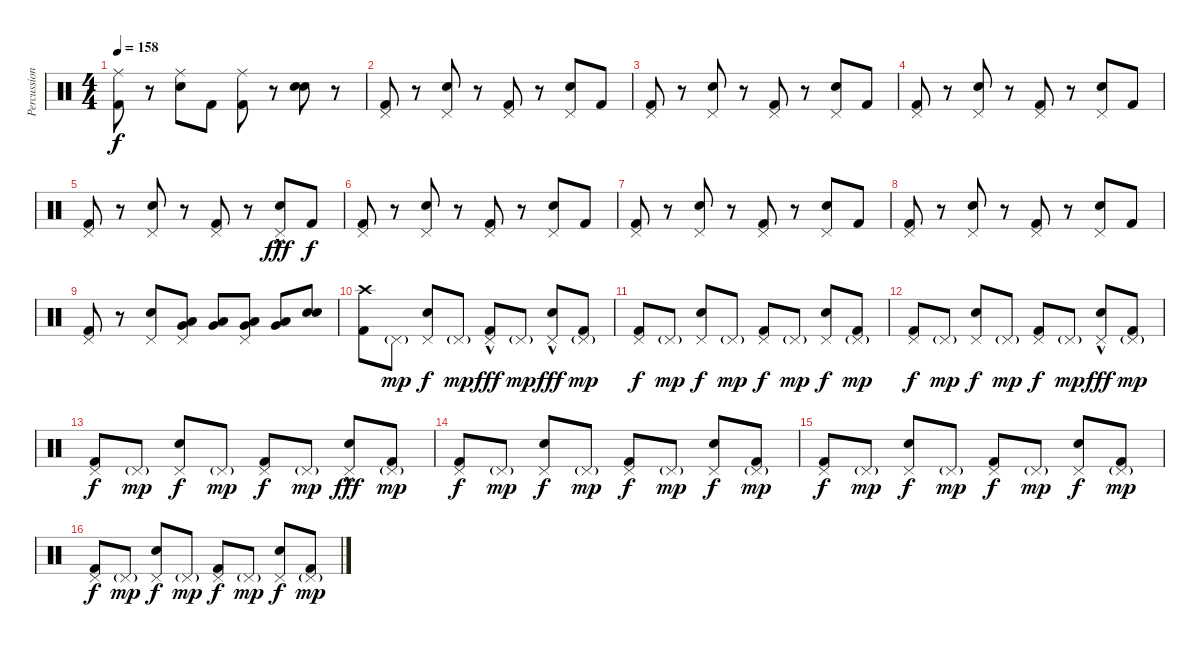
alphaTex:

\track ("Percussion" "Percussion") {instrument percussion bank 78}
\staff {score}
\articulation defaults
\ts (4 4)
\tempo 158
\clef neutral
\ks c
("Ride (middle)" "Kick (hit) 2").8{dy f} r.8 ("Ride (middle)" "Electric Snare (hit)").8 "Kick (hit) 2".8 ("Ride (middle)" "Kick (hit) 2").8 r.8 ("Electric Snare (hit)" "Electric Snare (hit)").8 r.8 |
("Pedal Hi-Hat (hit)" "Kick (hit) 2").8 r.8 ("Pedal Hi-Hat (hit)" "Electric Snare (hit)").8 r.8 ("Pedal Hi-Hat (hit)" "Kick (hit) 2").8 r.8 ("Pedal Hi-Hat (hit)" "Electric Snare (hit)").8 "Kick (hit) 2".8 |
("Pedal Hi-Hat (hit)" "Kick (hit) 2").8 r.8 ("Pedal Hi-Hat (hit)" "Electric Snare (hit)").8 r.8 ("Pedal Hi-Hat (hit)" "Kick (hit) 2").8 r.8 ("Pedal Hi-Hat (hit)" "Electric Snare (hit)").8 "Kick (hit) 2".8 |
("Pedal Hi-Hat (hit)" "Kick (hit) 2").8 r.8 ("Pedal Hi-Hat (hit)" "Electric Snare (hit)").8 r.8 ("Pedal Hi-Hat (hit)" "Kick (hit) 2").8 r.8 ("Pedal Hi-Hat (hit)" "Electric Snare (hit)").8 "Kick (hit) 2".8 |
("Pedal Hi-Hat (hit)" "Kick (hit) 2").8 r.8 ("Pedal Hi-Hat (hit)" "Electric Snare (hit)").8 r.8 ("Pedal Hi-Hat (hit)" "Kick (hit) 2").8 r.8 ("Pedal Hi-Hat (hit)"{hac} "Electric Snare (hit)").8{dy fff} "Kick (hit) 2".8{dy f} |
("Pedal Hi-Hat (hit)" "Kick (hit) 2").8 r.8 ("Pedal Hi-Hat (hit)" "Electric Snare (hit)").8 r.8 ("Pedal Hi-Hat (hit)" "Kick (hit) 2").8 r.8 ("Pedal Hi-Hat (hit)" "Electric Snare (hit)").8 "Kick (hit) 2".8 |
("Pedal Hi-Hat (hit)" "Kick (hit) 2").8 r.8 ("Pedal Hi-Hat (hit)" "Electric Snare (hit)").8 r.8 ("Pedal Hi-Hat (hit)" "Kick (hit) 2").8 r.8 ("Pedal Hi-Hat (hit)" "Electric Snare (hit)").8 "Kick (hit) 2".8 |
("Pedal Hi-Hat (hit)" "Kick (hit) 2").8 r.8 ("Pedal Hi-Hat (hit)" "Electric Snare (hit)").8 r.8 ("Pedal Hi-Hat (hit)" "Kick (hit) 2").8 r.8 ("Pedal Hi-Hat (hit)" "Electric Snare (hit)").8 "Kick (hit) 2".8 |
("Pedal Hi-Hat (hit)" "Kick (hit) 2").8 r.8 ("Pedal Hi-Hat (hit)" "Electric Snare (hit)").8 ("Pedal Hi-Hat (hit)" "Very Low Tom (hit)" "Low Floor Tom (hit)").8 ("Very Low Tom (hit)" "Low Floor Tom (hit)").8 ("Pedal Hi-Hat (hit)" "Very Low Tom (hit)" "Low Floor Tom (hit)").8 ("Very Low Tom (hit)" "Low Floor Tom (hit)").8 ("Electric Snare (hit)" "Electric Snare (hit)").8 |
("Crash high (hit)" "Kick (hit) 2").8 "Pedal Hi-Hat (hit)"{g}.8{dy mp} ("Pedal Hi-Hat (hit)" "Electric Snare (hit)").8{dy f} "Pedal Hi-Hat (hit)"{g}.8{dy mp} ("Pedal Hi-Hat (hit)"{hac} "Kick (hit) 2").8{dy fff} "Pedal Hi-Hat (hit)"{g}.8{dy mp} ("Pedal Hi-Hat (hit)"{hac} "Electric Snare (hit)").8{dy fff} ("Pedal Hi-Hat (hit)"{g} "Kick (hit) 2").8{dy mp} |
("Pedal Hi-Hat (hit)" "Kick (hit) 2").8{dy f} "Pedal Hi-Hat (hit)"{g}.8{dy mp} ("Pedal Hi-Hat (hit)" "Electric Snare (hit)").8{dy f} "Pedal Hi-Hat (hit)"{g}.8{dy mp} ("Pedal Hi-Hat (hit)" "Kick (hit) 2").8{dy f} "Pedal Hi-Hat (hit)"{g}.8{dy mp} ("Pedal Hi-Hat (hit)" "Electric Snare (hit)").8{dy f} ("Pedal Hi-Hat (hit)"{g} "Kick (hit) 2").8{dy mp} |
("Pedal Hi-Hat (hit)" "Kick (hit) 2").8{dy f} "Pedal Hi-Hat (hit)"{g}.8{dy mp} ("Pedal Hi-Hat (hit)" "Electric Snare (hit)").8{dy f} "Pedal Hi-Hat (hit)"{g}.8{dy mp} ("Pedal Hi-Hat (hit)" "Kick (hit) 2").8{dy f} "Pedal Hi-Hat (hit)"{g}.8{dy mp} ("Pedal Hi-Hat (hit)"{hac} "Electric Snare (hit)").8{dy fff} ("Pedal Hi-Hat (hit)"{g} "Kick (hit) 2").8{dy mp} |
("Pedal Hi-Hat (hit)" "Kick (hit) 2").8{dy f} "Pedal Hi-Hat (hit)"{g}.8{dy mp} ("Pedal Hi-Hat (hit)" "Electric Snare (hit)").8{dy f} "Pedal Hi-Hat (hit)"{g}.8{dy mp} ("Pedal Hi-Hat (hit)" "Kick (hit) 2").8{dy f} "Pedal Hi-Hat (hit)"{g}.8{dy mp} ("Pedal Hi-Hat (hit)"{hac} "Electric Snare (hit)").8{dy fff} ("Pedal Hi-Hat (hit)"{g} "Kick (hit) 2").8{dy mp} |
("Pedal Hi-Hat (hit)" "Kick (hit) 2").8{dy f} "Pedal Hi-Hat (hit)"{g}.8{dy mp} ("Pedal Hi-Hat (hit)" "Electric Snare (hit)").8{dy f} "Pedal Hi-Hat (hit)"{g}.8{dy mp} ("Pedal Hi-Hat (hit)" "Kick (hit) 2").8{dy f} "Pedal Hi-Hat (hit)"{g}.8{dy mp} ("Pedal Hi-Hat (hit)" "Electric Snare (hit)").8{dy f} ("Pedal Hi-Hat (hit)"{g} "Kick (hit) 2").8{dy mp} |
("Pedal Hi-Hat (hit)" "Kick (hit) 2").8{dy f} "Pedal Hi-Hat (hit)"{g}.8{dy mp} ("Pedal Hi-Hat (hit)" "Electric Snare (hit)").8{dy f} "Pedal Hi-Hat (hit)"{g}.8{dy mp} ("Pedal Hi-Hat (hit)" "Kick (hit) 2").8{dy f} "Pedal Hi-Hat (hit)"{g}.8{dy mp} ("Pedal Hi-Hat (hit)" "Electric Snare (hit)").8{dy f} ("Pedal Hi-Hat (hit)"{g} "Kick (hit) 2").8{dy mp} |
("Pedal Hi-Hat (hit)" "Kick (hit) 2").8{dy f} "Pedal Hi-Hat (hit)"{g}.8{dy mp} ("Pedal Hi-Hat (hit)" "Electric Snare (hit)").8{dy f} "Pedal Hi-Hat (hit)"{g}.8{dy mp} ("Pedal Hi-Hat (hit)" "Kick (hit) 2").8{dy f} "Pedal Hi-Hat (hit)"{g}.8{dy mp} ("Pedal Hi-Hat (hit)" "Electric Snare (hit)").8{dy f} ("Pedal Hi-Hat (hit)"{g} "Kick (hit) 2").8{dy mp}
